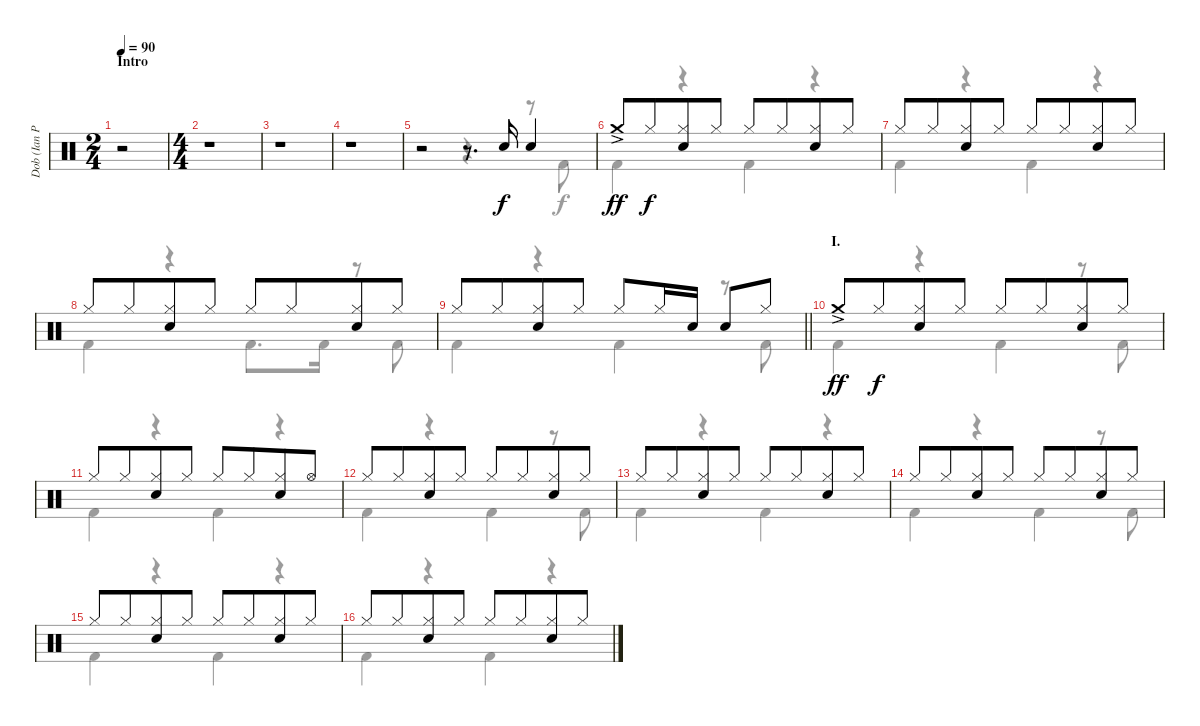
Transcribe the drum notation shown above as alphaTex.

\track ("Dob (Ian Paice)" "Dob (Ian P") {instrument percussion}
\staff {score}
\articulation defaults
\voice
\ts (2 4)
\section ("" "Intro")
\tempo 90
\clef neutral
\ks c
r.2{dy f} |
\ts (4 4)
r.1 |
r.1 |
r.1 |
r.2 r.8{d} "Electric Snare (hit)".16 "Electric Snare (hit)".4 |
"Crash medium (hit)"{ac}.8{dy ff} "Hi-Hat (closed)".8{dy f beam merge} ("Hi-Hat (closed)" "Electric Snare (hit)").8 "Hi-Hat (closed)".8 "Hi-Hat (closed)".8 "Hi-Hat (closed)".8{beam merge} ("Hi-Hat (closed)" "Electric Snare (hit)").8 "Hi-Hat (closed)".8 |
"Hi-Hat (closed)".8 "Hi-Hat (closed)".8{beam merge} ("Hi-Hat (closed)" "Electric Snare (hit)").8 "Hi-Hat (closed)".8 "Hi-Hat (closed)".8 "Hi-Hat (closed)".8{beam merge} ("Hi-Hat (closed)" "Electric Snare (hit)").8 "Hi-Hat (closed)".8 |
"Hi-Hat (closed)".8 "Hi-Hat (closed)".8{beam merge} ("Hi-Hat (closed)" "Electric Snare (hit)").8 "Hi-Hat (closed)".8 "Hi-Hat (closed)".8 "Hi-Hat (closed)".8{beam merge} ("Hi-Hat (closed)" "Electric Snare (hit)").8 "Hi-Hat (closed)".8 |
\barLineRight lightlight "Hi-Hat (closed)".8 "Hi-Hat (closed)".8{beam merge}
("Hi-Hat (closed)" "Electric Snare (hit)").8 "Hi-Hat (closed)".8 "Hi-Hat (closed)".8 "Hi-Hat (closed)".16 "Electric Snare (hit)".16 "Electric Snare (hit)".8 "Hi-Hat (closed)".8 |
\section ("" "I.")
"Crash medium (hit)"{ac}.8{dy ff} "Hi-Hat (closed)".8{dy f beam merge} ("Hi-Hat (closed)" "Electric Snare (hit)").8 "Hi-Hat (closed)".8 "Hi-Hat (closed)".8 "Hi-Hat (closed)".8{beam merge} ("Hi-Hat (closed)" "Electric Snare (hit)").8 "Hi-Hat (closed)".8 |
"Hi-Hat (closed)".8 "Hi-Hat (closed)".8{beam merge} ("Hi-Hat (closed)" "Electric Snare (hit)").8 "Hi-Hat (closed)".8 "Hi-Hat (closed)".8 "Hi-Hat (closed)".8{beam merge} ("Hi-Hat (closed)" "Electric Snare (hit)").8 "Hi-Hat (open)".8 |
"Hi-Hat (closed)".8 "Hi-Hat (closed)".8{beam merge} ("Hi-Hat (closed)" "Electric Snare (hit)").8 "Hi-Hat (closed)".8 "Hi-Hat (closed)".8 "Hi-Hat (closed)".8{beam merge} ("Hi-Hat (closed)" "Electric Snare (hit)").8 "Hi-Hat (closed)".8 |
"Hi-Hat (closed)".8 "Hi-Hat (closed)".8{beam merge} ("Hi-Hat (closed)" "Electric Snare (hit)").8 "Hi-Hat (closed)".8 "Hi-Hat (closed)".8 "Hi-Hat (closed)".8{beam merge} ("Hi-Hat (closed)" "Electric Snare (hit)").8 "Hi-Hat (closed)".8 |
"Hi-Hat (closed)".8 "Hi-Hat (closed)".8{beam merge} ("Hi-Hat (closed)" "Electric Snare (hit)").8 "Hi-Hat (closed)".8 "Hi-Hat (closed)".8 "Hi-Hat (closed)".8{beam merge} ("Hi-Hat (closed)" "Electric Snare (hit)").8 "Hi-Hat (closed)".8 |
"Hi-Hat (closed)".8 "Hi-Hat (closed)".8{beam merge} ("Hi-Hat (closed)" "Electric Snare (hit)").8 "Hi-Hat (closed)".8 "Hi-Hat (closed)".8 "Hi-Hat (closed)".8{beam merge} ("Hi-Hat (closed)" "Electric Snare (hit)").8 "Hi-Hat (closed)".8 |
"Hi-Hat (closed)".8 "Hi-Hat (closed)".8{beam merge} ("Hi-Hat (closed)" "Electric Snare (hit)").8 "Hi-Hat (closed)".8 "Hi-Hat (closed)".8 "Hi-Hat (closed)".8{beam merge} ("Hi-Hat (closed)" "Electric Snare (hit)").8 "Hi-Hat (closed)".8
\voice
\clef neutral
\ottava regular
\simile none
\ks c
r.2{dy f} |
r.1 |
r.1 |
r.1 |
r.2 r.4 r.8 "Kick (hit) 2".8 |
"Kick (hit) 2".4 r.4 "Kick (hit) 2".4 r.4 |
"Kick (hit) 2".4 r.4 "Kick (hit) 2".4 r.4 |
"Kick (hit) 2".4 r.4 "Kick (hit) 2".8{d} "Kick (hit) 2".16 r.8 "Kick (hit) 2".8 |
\barLineRight lightlight "Kick (hit) 2".4
r.4 "Kick (hit) 2".4 r.8 "Kick (hit) 2".8 |
"Kick (hit) 2".4 r.4 "Kick (hit) 2".4 r.8 "Kick (hit) 2".8 |
"Kick (hit) 2".4 r.4 "Kick (hit) 2".4 r.4 |
"Kick (hit) 2".4 r.4 "Kick (hit) 2".4 r.8 "Kick (hit) 2".8 |
"Kick (hit) 2".4 r.4 "Kick (hit) 2".4 r.4 |
"Kick (hit) 2".4 r.4 "Kick (hit) 2".4 r.8 "Kick (hit) 2".8 |
"Kick (hit) 2".4 r.4 "Kick (hit) 2".4 r.4 |
"Kick (hit) 2".4 r.4 "Kick (hit) 2".4 r.4
